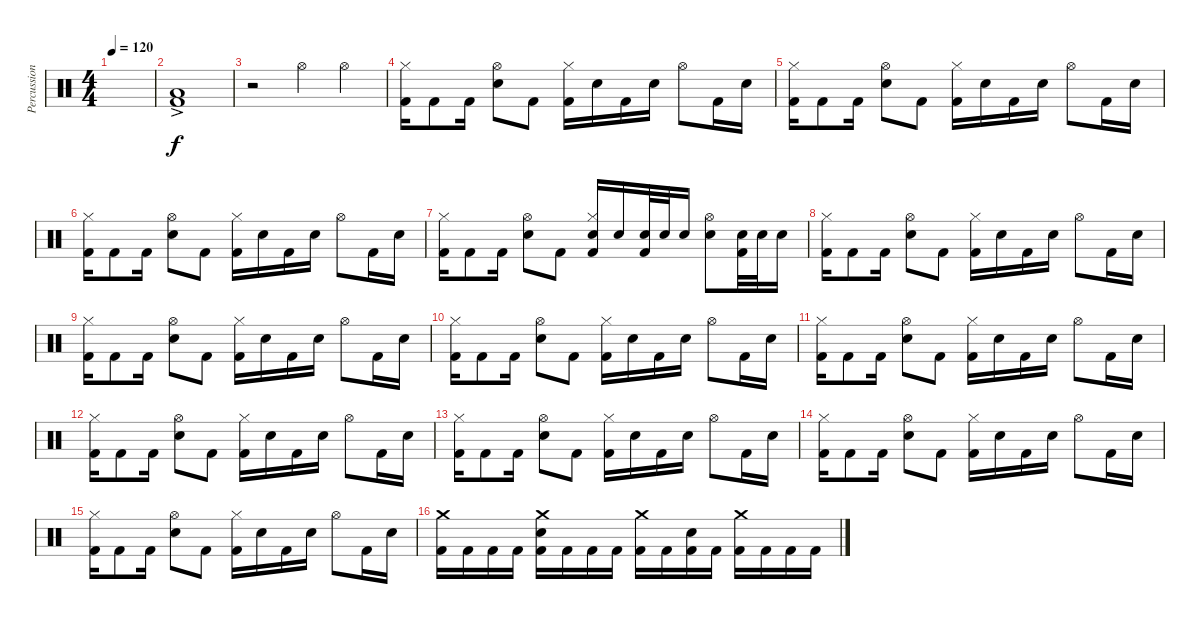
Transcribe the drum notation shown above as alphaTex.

\track ("Percussions" "Percussion") {instrument percussion}
\staff {score}
\articulation defaults
\ts (4 4)
\tempo 120
\clef neutral
\ks c
|
("Low Floor Tom (hit)"{ac} "Kick (hit) 2"{ac}).1 |
r.2 "Hi-Hat (open)".4{dy f} "Hi-Hat (open)".4 |
("Hi-Hat (closed)" "Kick (hit) 2").16 "Kick (hit) 2".8 "Kick (hit) 2".16 ("Electric Snare (hit)" "Hi-Hat (open)").8 "Kick (hit) 2".8 ("Hi-Hat (closed)" "Kick (hit) 2").16 "Electric Snare (hit)".16 "Kick (hit) 2".16 "Electric Snare (hit)".16 "Hi-Hat (open)".8 "Kick (hit) 2".16 "Electric Snare (hit)".16 |
("Hi-Hat (closed)" "Kick (hit) 2").16 "Kick (hit) 2".8 "Kick (hit) 2".16 ("Electric Snare (hit)" "Hi-Hat (open)").8 "Kick (hit) 2".8 ("Hi-Hat (closed)" "Kick (hit) 2").16 "Electric Snare (hit)".16 "Kick (hit) 2".16 "Electric Snare (hit)".16 "Hi-Hat (open)".8 "Kick (hit) 2".16 "Electric Snare (hit)".16 |
("Hi-Hat (closed)" "Kick (hit) 2").16 "Kick (hit) 2".8 "Kick (hit) 2".16 ("Electric Snare (hit)" "Hi-Hat (open)").8 "Kick (hit) 2".8 ("Hi-Hat (closed)" "Kick (hit) 2").16 "Electric Snare (hit)".16 "Kick (hit) 2".16 "Electric Snare (hit)".16 "Hi-Hat (open)".8 "Kick (hit) 2".16 "Electric Snare (hit)".16 |
("Hi-Hat (closed)" "Kick (hit) 2").16 "Kick (hit) 2".8 "Kick (hit) 2".16 ("Electric Snare (hit)" "Hi-Hat (open)").8 "Kick (hit) 2".8 ("Electric Snare (hit)" "Hi-Hat (closed)" "Kick (hit) 2").16 "Electric Snare (hit)".16 ("Electric Snare (hit)" "Kick (hit) 2").32 "Electric Snare (hit)".32 "Electric Snare (hit)".16 ("Electric Snare (hit)" "Hi-Hat (open)").8 ("Electric Snare (hit)" "Kick (hit) 2").32 "Electric Snare (hit)".32 "Electric Snare (hit)".16 |
("Hi-Hat (closed)" "Kick (hit) 2").16 "Kick (hit) 2".8 "Kick (hit) 2".16 ("Electric Snare (hit)" "Hi-Hat (open)").8 "Kick (hit) 2".8 ("Hi-Hat (closed)" "Kick (hit) 2").16 "Electric Snare (hit)".16 "Kick (hit) 2".16 "Electric Snare (hit)".16 "Hi-Hat (open)".8 "Kick (hit) 2".16 "Electric Snare (hit)".16 |
("Hi-Hat (closed)" "Kick (hit) 2").16 "Kick (hit) 2".8 "Kick (hit) 2".16 ("Electric Snare (hit)" "Hi-Hat (open)").8 "Kick (hit) 2".8 ("Hi-Hat (closed)" "Kick (hit) 2").16 "Electric Snare (hit)".16 "Kick (hit) 2".16 "Electric Snare (hit)".16 "Hi-Hat (open)".8 "Kick (hit) 2".16 "Electric Snare (hit)".16 |
("Hi-Hat (closed)" "Kick (hit) 2").16 "Kick (hit) 2".8 "Kick (hit) 2".16 ("Electric Snare (hit)" "Hi-Hat (open)").8 "Kick (hit) 2".8 ("Hi-Hat (closed)" "Kick (hit) 2").16 "Electric Snare (hit)".16 "Kick (hit) 2".16 "Electric Snare (hit)".16 "Hi-Hat (open)".8 "Kick (hit) 2".16 "Electric Snare (hit)".16 |
("Hi-Hat (closed)" "Kick (hit) 2").16 "Kick (hit) 2".8 "Kick (hit) 2".16 ("Electric Snare (hit)" "Hi-Hat (open)").8 "Kick (hit) 2".8 ("Hi-Hat (closed)" "Kick (hit) 2").16 "Electric Snare (hit)".16 "Kick (hit) 2".16 "Electric Snare (hit)".16 "Hi-Hat (open)".8 "Kick (hit) 2".16 "Electric Snare (hit)".16 |
("Hi-Hat (closed)" "Kick (hit) 2").16 "Kick (hit) 2".8 "Kick (hit) 2".16 ("Electric Snare (hit)" "Hi-Hat (open)").8 "Kick (hit) 2".8 ("Hi-Hat (closed)" "Kick (hit) 2").16 "Electric Snare (hit)".16 "Kick (hit) 2".16 "Electric Snare (hit)".16 "Hi-Hat (open)".8 "Kick (hit) 2".16 "Electric Snare (hit)".16 |
("Hi-Hat (closed)" "Kick (hit) 2").16 "Kick (hit) 2".8 "Kick (hit) 2".16 ("Electric Snare (hit)" "Hi-Hat (open)").8 "Kick (hit) 2".8 ("Hi-Hat (closed)" "Kick (hit) 2").16 "Electric Snare (hit)".16 "Kick (hit) 2".16 "Electric Snare (hit)".16 "Hi-Hat (open)".8 "Kick (hit) 2".16 "Electric Snare (hit)".16 |
("Hi-Hat (closed)" "Kick (hit) 2").16 "Kick (hit) 2".8 "Kick (hit) 2".16 ("Electric Snare (hit)" "Hi-Hat (open)").8 "Kick (hit) 2".8 ("Hi-Hat (closed)" "Kick (hit) 2").16 "Electric Snare (hit)".16 "Kick (hit) 2".16 "Electric Snare (hit)".16 "Hi-Hat (open)".8 "Kick (hit) 2".16 "Electric Snare (hit)".16 |
("Hi-Hat (closed)" "Kick (hit) 2").16 "Kick (hit) 2".8 "Kick (hit) 2".16 ("Electric Snare (hit)" "Hi-Hat (open)").8 "Kick (hit) 2".8 ("Hi-Hat (closed)" "Kick (hit) 2").16 "Electric Snare (hit)".16 "Kick (hit) 2".16 "Electric Snare (hit)".16 "Hi-Hat (open)".8 "Kick (hit) 2".16 "Electric Snare (hit)".16 |
("Crash medium (hit)" "Kick (hit) 2").16 "Kick (hit) 2".16 "Kick (hit) 2".16 "Kick (hit) 2".16 ("Electric Snare (hit)" "Crash medium (hit)" "Kick (hit) 2").16 "Kick (hit) 2".16 "Kick (hit) 2".16 "Kick (hit) 2".16 ("Crash medium (hit)" "Kick (hit) 2").16 "Kick (hit) 2".16 ("Electric Snare (hit)" "Kick (hit) 2").16 "Kick (hit) 2".16 ("Crash medium (hit)" "Kick (hit) 2").16 "Kick (hit) 2".16 "Kick (hit) 2".16 "Kick (hit) 2".16
